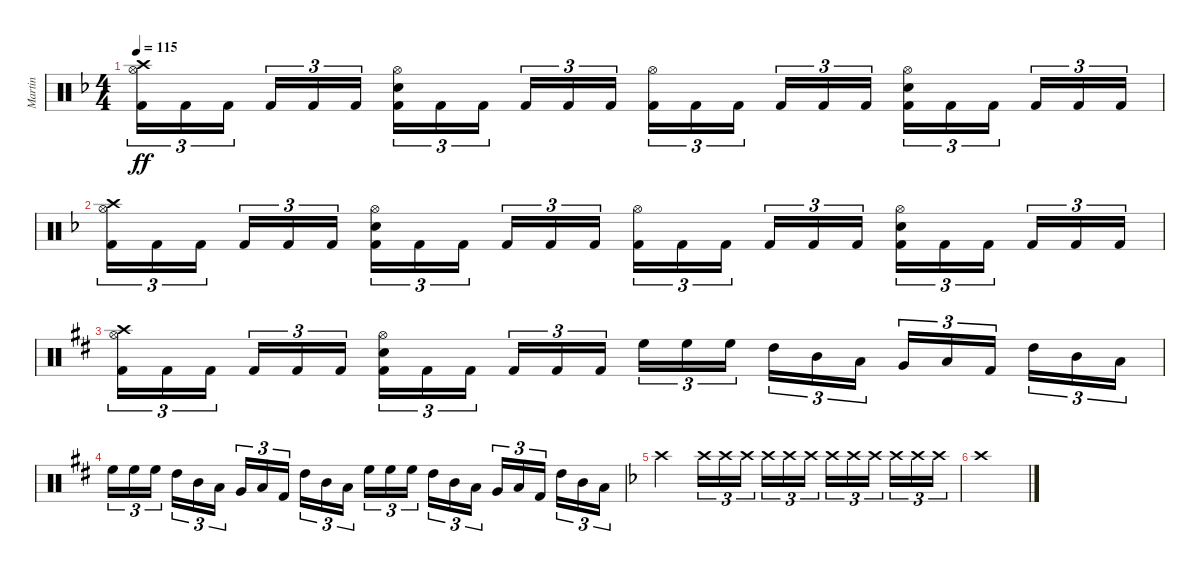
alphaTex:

\track ("Martin" "Martin") {instrument percussion}
\staff {score}
\articulation defaults
\ts (4 4)
\tempo 115
\clef neutral
\ks dminor
("Crash high (hit)" "Hi-Hat (open)" "Kick (hit) 2").16{tu (3 2) dy ff} "Kick (hit) 2".16{tu (3 2)} "Kick (hit) 2".16{tu (3 2) beam splitsecondary} "Kick (hit) 2".16{tu (3 2)} "Kick (hit) 2".16{tu (3 2)} "Kick (hit) 2".16{tu (3 2)} ("Hi-Hat (open)" "Electric Snare (hit)" "Kick (hit) 2").16{tu (3 2)} "Kick (hit) 2".16{tu (3 2)} "Kick (hit) 2".16{tu (3 2) beam splitsecondary} "Kick (hit) 2".16{tu (3 2)} "Kick (hit) 2".16{tu (3 2)} "Kick (hit) 2".16{tu (3 2)} ("Hi-Hat (open)" "Kick (hit) 2").16{tu (3 2)} "Kick (hit) 2".16{tu (3 2)} "Kick (hit) 2".16{tu (3 2) beam splitsecondary} "Kick (hit) 2".16{tu (3 2)} "Kick (hit) 2".16{tu (3 2)} "Kick (hit) 2".16{tu (3 2)} ("Hi-Hat (open)" "Electric Snare (hit)" "Kick (hit) 2").16{tu (3 2)} "Kick (hit) 2".16{tu (3 2)} "Kick (hit) 2".16{tu (3 2) beam splitsecondary} "Kick (hit) 2".16{tu (3 2)} "Kick (hit) 2".16{tu (3 2)} "Kick (hit) 2".16{tu (3 2)} |
("Crash high (hit)" "Hi-Hat (open)" "Kick (hit) 2").16{tu (3 2)} "Kick (hit) 2".16{tu (3 2)} "Kick (hit) 2".16{tu (3 2) beam splitsecondary} "Kick (hit) 2".16{tu (3 2)} "Kick (hit) 2".16{tu (3 2)} "Kick (hit) 2".16{tu (3 2)} ("Hi-Hat (open)" "Electric Snare (hit)" "Kick (hit) 2").16{tu (3 2)} "Kick (hit) 2".16{tu (3 2)} "Kick (hit) 2".16{tu (3 2) beam splitsecondary} "Kick (hit) 2".16{tu (3 2)} "Kick (hit) 2".16{tu (3 2)} "Kick (hit) 2".16{tu (3 2)} ("Hi-Hat (open)" "Kick (hit) 2").16{tu (3 2)} "Kick (hit) 2".16{tu (3 2)} "Kick (hit) 2".16{tu (3 2) beam splitsecondary} "Kick (hit) 2".16{tu (3 2)} "Kick (hit) 2".16{tu (3 2)} "Kick (hit) 2".16{tu (3 2)} ("Hi-Hat (open)" "Electric Snare (hit)" "Kick (hit) 2").16{tu (3 2)} "Kick (hit) 2".16{tu (3 2)} "Kick (hit) 2".16{tu (3 2) beam splitsecondary} "Kick (hit) 2".16{tu (3 2)} "Kick (hit) 2".16{tu (3 2)} "Kick (hit) 2".16{tu (3 2)} |
\ks bminor
("Crash high (hit)" "Hi-Hat (open)" "Kick (hit) 2").16{tu (3 2)} "Kick (hit) 2".16{tu (3 2)} "Kick (hit) 2".16{tu (3 2) beam splitsecondary} "Kick (hit) 2".16{tu (3 2)} "Kick (hit) 2".16{tu (3 2)} "Kick (hit) 2".16{tu (3 2)} ("Hi-Hat (open)" "Electric Snare (hit)" "Kick (hit) 2").16{tu (3 2)} "Kick (hit) 2".16{tu (3 2)} "Kick (hit) 2".16{tu (3 2) beam splitsecondary} "Kick (hit) 2".16{tu (3 2)} "Kick (hit) 2".16{tu (3 2)} "Kick (hit) 2".16{tu (3 2)} "High Floor Tom (hit)".16{tu (3 2)} "High Floor Tom (hit)".16{tu (3 2)} "High Floor Tom (hit)".16{tu (3 2) beam splitsecondary} "High Tom (hit)".16{tu (3 2)} "Mid Tom (hit)".16{tu (3 2)} "Low Tom (hit)".16{tu (3 2)} "Very Low Tom (hit)".16{tu (3 2)} "Low Floor Tom (hit)".16{tu (3 2)} "Kick (hit) 2".16{tu (3 2) beam splitsecondary} "High Tom (hit)".16{tu (3 2)} "Mid Tom (hit)".16{tu (3 2)} "Low Tom (hit)".16{tu (3 2)} |
"High Floor Tom (hit)".16{tu (3 2)} "High Floor Tom (hit)".16{tu (3 2)} "High Floor Tom (hit)".16{tu (3 2) beam splitsecondary} "High Tom (hit)".16{tu (3 2)} "Mid Tom (hit)".16{tu (3 2)} "Low Tom (hit)".16{tu (3 2)} "Very Low Tom (hit)".16{tu (3 2)} "Low Floor Tom (hit)".16{tu (3 2)} "Kick (hit) 2".16{tu (3 2) beam splitsecondary} "High Tom (hit)".16{tu (3 2)} "Mid Tom (hit)".16{tu (3 2)} "Low Tom (hit)".16{tu (3 2)} "High Floor Tom (hit)".16{tu (3 2)} "High Floor Tom (hit)".16{tu (3 2)} "High Floor Tom (hit)".16{tu (3 2) beam splitsecondary} "High Tom (hit)".16{tu (3 2)} "Mid Tom (hit)".16{tu (3 2)} "Low Tom (hit)".16{tu (3 2)} "Very Low Tom (hit)".16{tu (3 2)} "Low Floor Tom (hit)".16{tu (3 2)} "Kick (hit) 2".16{tu (3 2) beam splitsecondary} "High Tom (hit)".16{tu (3 2)} "Mid Tom (hit)".16{tu (3 2)} "Low Tom (hit)".16{tu (3 2)} |
\ks dminor "Crash high (hit)".2 "Crash high (hit)".16{tu (3 2)} "Crash high (hit)".16{tu (3 2)} "Crash high (hit)".16{tu (3 2) beam splitsecondary} "Crash high (hit)".16{tu (3 2)} "Crash high (hit)".16{tu (3 2)} "Crash high (hit)".16{tu (3 2)} "Crash high (hit)".16{tu (3 2)} "Crash high (hit)".16{tu (3 2)} "Crash high (hit)".16{tu (3 2) beam splitsecondary} "Crash high (hit)".16{tu (3 2)} "Crash high (hit)".16{tu (3 2)} "Crash high (hit)".16{tu (3 2)}
|
"Crash high (hit)".1
